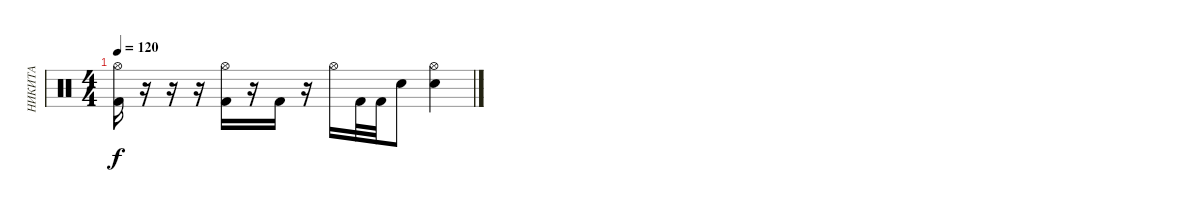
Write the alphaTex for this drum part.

\track ("НИКИТА" "НИКИТА") {instrument percussion}
\staff {score}
\articulation defaults
\ts (4 4)
\tempo 120
\clef neutral
\ks c
("Hi-Hat (open)" "Kick (hit) 2").16{dy f} r.16 r.16 r.16 ("Hi-Hat (open)" "Kick (hit) 2").16 r.16 "Kick (hit) 2".16 r.16 "Hi-Hat (open)".16 "Kick (hit) 2".32 "Kick (hit) 2".32 "Snare (hit) 2".8 ("Hi-Hat (open)" "Snare (hit) 2").4
